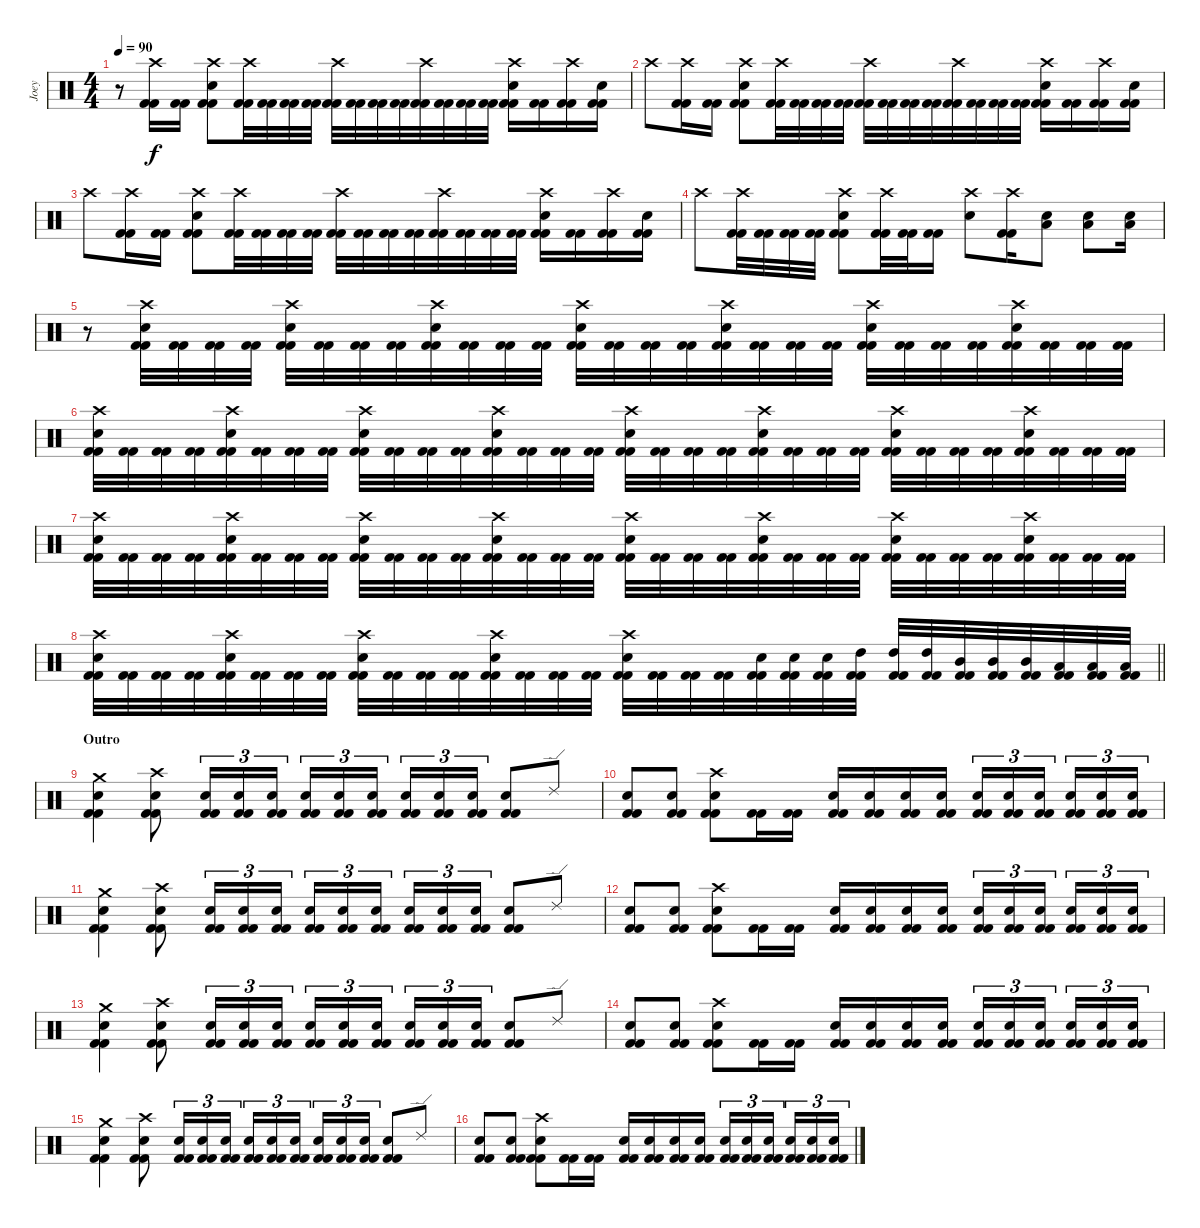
\track ("Joey" "Joey") {instrument percussion}
\staff {score}
\articulation defaults
\ts (4 4)
\tempo 90
\clef neutral
\ks c
r.8{dy f} ("Crash high (hit)" "Kick (hit) 2" "Kick (hit) 2").16 ("Kick (hit) 2" "Kick (hit) 2").16 ("Electric Snare (hit)" "Crash high (hit)" "Kick (hit) 2" "Kick (hit) 2").8 ("Crash high (hit)" "Kick (hit) 2" "Kick (hit) 2").32 ("Kick (hit) 2" "Kick (hit) 2").32 ("Kick (hit) 2" "Kick (hit) 2").32 ("Kick (hit) 2" "Kick (hit) 2").32 ("Crash high (hit)" "Kick (hit) 2" "Kick (hit) 2").32 ("Kick (hit) 2" "Kick (hit) 2").32 ("Kick (hit) 2" "Kick (hit) 2").32 ("Kick (hit) 2" "Kick (hit) 2").32 ("Crash high (hit)" "Kick (hit) 2" "Kick (hit) 2").32 ("Kick (hit) 2" "Kick (hit) 2").32 ("Kick (hit) 2" "Kick (hit) 2").32 ("Kick (hit) 2" "Kick (hit) 2").32 ("Electric Snare (hit)" "Crash high (hit)" "Kick (hit) 2" "Kick (hit) 2").16 ("Kick (hit) 2" "Kick (hit) 2").16 ("Crash high (hit)" "Kick (hit) 2" "Kick (hit) 2").16 ("Electric Snare (hit)" "Kick (hit) 2" "Kick (hit) 2").16 |
"Crash high (hit)".8 ("Crash high (hit)" "Kick (hit) 2" "Kick (hit) 2").16 ("Kick (hit) 2" "Kick (hit) 2").16 ("Electric Snare (hit)" "Crash high (hit)" "Kick (hit) 2" "Kick (hit) 2").8 ("Crash high (hit)" "Kick (hit) 2" "Kick (hit) 2").32 ("Kick (hit) 2" "Kick (hit) 2").32 ("Kick (hit) 2" "Kick (hit) 2").32 ("Kick (hit) 2" "Kick (hit) 2").32 ("Crash high (hit)" "Kick (hit) 2" "Kick (hit) 2").32 ("Kick (hit) 2" "Kick (hit) 2").32 ("Kick (hit) 2" "Kick (hit) 2").32 ("Kick (hit) 2" "Kick (hit) 2").32 ("Crash high (hit)" "Kick (hit) 2" "Kick (hit) 2").32 ("Kick (hit) 2" "Kick (hit) 2").32 ("Kick (hit) 2" "Kick (hit) 2").32 ("Kick (hit) 2" "Kick (hit) 2").32 ("Electric Snare (hit)" "Crash high (hit)" "Kick (hit) 2" "Kick (hit) 2").16 ("Kick (hit) 2" "Kick (hit) 2").16 ("Crash high (hit)" "Kick (hit) 2" "Kick (hit) 2").16 ("Electric Snare (hit)" "Kick (hit) 2" "Kick (hit) 2").16 |
"Crash high (hit)".8 ("Crash high (hit)" "Kick (hit) 2" "Kick (hit) 2").16 ("Kick (hit) 2" "Kick (hit) 2").16 ("Electric Snare (hit)" "Crash high (hit)" "Kick (hit) 2" "Kick (hit) 2").8 ("Crash high (hit)" "Kick (hit) 2" "Kick (hit) 2").32 ("Kick (hit) 2" "Kick (hit) 2").32 ("Kick (hit) 2" "Kick (hit) 2").32 ("Kick (hit) 2" "Kick (hit) 2").32 ("Crash high (hit)" "Kick (hit) 2" "Kick (hit) 2").32 ("Kick (hit) 2" "Kick (hit) 2").32 ("Kick (hit) 2" "Kick (hit) 2").32 ("Kick (hit) 2" "Kick (hit) 2").32 ("Crash high (hit)" "Kick (hit) 2" "Kick (hit) 2").32 ("Kick (hit) 2" "Kick (hit) 2").32 ("Kick (hit) 2" "Kick (hit) 2").32 ("Kick (hit) 2" "Kick (hit) 2").32 ("Electric Snare (hit)" "Crash high (hit)" "Kick (hit) 2" "Kick (hit) 2").16 ("Kick (hit) 2" "Kick (hit) 2").16 ("Crash high (hit)" "Kick (hit) 2" "Kick (hit) 2").16 ("Electric Snare (hit)" "Kick (hit) 2" "Kick (hit) 2").16 |
"Crash high (hit)".8 ("Crash high (hit)" "Kick (hit) 2" "Kick (hit) 2").32 ("Kick (hit) 2" "Kick (hit) 2").32 ("Kick (hit) 2" "Kick (hit) 2").32 ("Kick (hit) 2" "Kick (hit) 2").32 ("Electric Snare (hit)" "Crash high (hit)" "Kick (hit) 2" "Kick (hit) 2").8 ("Crash high (hit)" "Kick (hit) 2" "Kick (hit) 2").32 ("Kick (hit) 2" "Kick (hit) 2").32 ("Kick (hit) 2" "Kick (hit) 2").16 ("Electric Snare (hit)" "Crash high (hit)").8 ("Crash high (hit)" "Kick (hit) 2" "Kick (hit) 2").16 ("Electric Snare (hit)" "Low Tom (hit)").8 ("Electric Snare (hit)" "Low Tom (hit)").8 ("Electric Snare (hit)" "Low Tom (hit)").16 |
r.8 ("Electric Snare (hit)" "Crash high (hit)" "Kick (hit) 2" "Kick (hit) 2").32 ("Kick (hit) 2" "Kick (hit) 2").32 ("Kick (hit) 2" "Kick (hit) 2").32 ("Kick (hit) 2" "Kick (hit) 2").32 ("Electric Snare (hit)" "Crash high (hit)" "Kick (hit) 2" "Kick (hit) 2").32 ("Kick (hit) 2" "Kick (hit) 2").32 ("Kick (hit) 2" "Kick (hit) 2").32 ("Kick (hit) 2" "Kick (hit) 2").32 ("Electric Snare (hit)" "Crash high (hit)" "Kick (hit) 2" "Kick (hit) 2").32 ("Kick (hit) 2" "Kick (hit) 2").32 ("Kick (hit) 2" "Kick (hit) 2").32 ("Kick (hit) 2" "Kick (hit) 2").32 ("Electric Snare (hit)" "Crash high (hit)" "Kick (hit) 2" "Kick (hit) 2").32 ("Kick (hit) 2" "Kick (hit) 2").32 ("Kick (hit) 2" "Kick (hit) 2").32 ("Kick (hit) 2" "Kick (hit) 2").32 ("Electric Snare (hit)" "Crash high (hit)" "Kick (hit) 2" "Kick (hit) 2").32 ("Kick (hit) 2" "Kick (hit) 2").32 ("Kick (hit) 2" "Kick (hit) 2").32 ("Kick (hit) 2" "Kick (hit) 2").32 ("Electric Snare (hit)" "Crash high (hit)" "Kick (hit) 2" "Kick (hit) 2").32 ("Kick (hit) 2" "Kick (hit) 2").32 ("Kick (hit) 2" "Kick (hit) 2").32 ("Kick (hit) 2" "Kick (hit) 2").32 ("Electric Snare (hit)" "Crash high (hit)" "Kick (hit) 2" "Kick (hit) 2").32 ("Kick (hit) 2" "Kick (hit) 2").32 ("Kick (hit) 2" "Kick (hit) 2").32 ("Kick (hit) 2" "Kick (hit) 2").32 |
("Electric Snare (hit)" "Crash high (hit)" "Kick (hit) 2" "Kick (hit) 2").32 ("Kick (hit) 2" "Kick (hit) 2").32 ("Kick (hit) 2" "Kick (hit) 2").32 ("Kick (hit) 2" "Kick (hit) 2").32 ("Electric Snare (hit)" "Crash high (hit)" "Kick (hit) 2" "Kick (hit) 2").32 ("Kick (hit) 2" "Kick (hit) 2").32 ("Kick (hit) 2" "Kick (hit) 2").32 ("Kick (hit) 2" "Kick (hit) 2").32 ("Electric Snare (hit)" "Crash high (hit)" "Kick (hit) 2" "Kick (hit) 2").32 ("Kick (hit) 2" "Kick (hit) 2").32 ("Kick (hit) 2" "Kick (hit) 2").32 ("Kick (hit) 2" "Kick (hit) 2").32 ("Electric Snare (hit)" "Crash high (hit)" "Kick (hit) 2" "Kick (hit) 2").32 ("Kick (hit) 2" "Kick (hit) 2").32 ("Kick (hit) 2" "Kick (hit) 2").32 ("Kick (hit) 2" "Kick (hit) 2").32 ("Electric Snare (hit)" "Crash high (hit)" "Kick (hit) 2" "Kick (hit) 2").32 ("Kick (hit) 2" "Kick (hit) 2").32 ("Kick (hit) 2" "Kick (hit) 2").32 ("Kick (hit) 2" "Kick (hit) 2").32 ("Electric Snare (hit)" "Crash high (hit)" "Kick (hit) 2" "Kick (hit) 2").32 ("Kick (hit) 2" "Kick (hit) 2").32 ("Kick (hit) 2" "Kick (hit) 2").32 ("Kick (hit) 2" "Kick (hit) 2").32 ("Electric Snare (hit)" "Crash high (hit)" "Kick (hit) 2" "Kick (hit) 2").32 ("Kick (hit) 2" "Kick (hit) 2").32 ("Kick (hit) 2" "Kick (hit) 2").32 ("Kick (hit) 2" "Kick (hit) 2").32 ("Electric Snare (hit)" "Crash high (hit)" "Kick (hit) 2" "Kick (hit) 2").32 ("Kick (hit) 2" "Kick (hit) 2").32 ("Kick (hit) 2" "Kick (hit) 2").32 ("Kick (hit) 2" "Kick (hit) 2").32 |
("Electric Snare (hit)" "Crash high (hit)" "Kick (hit) 2" "Kick (hit) 2").32 ("Kick (hit) 2" "Kick (hit) 2").32 ("Kick (hit) 2" "Kick (hit) 2").32 ("Kick (hit) 2" "Kick (hit) 2").32 ("Electric Snare (hit)" "Crash high (hit)" "Kick (hit) 2" "Kick (hit) 2").32 ("Kick (hit) 2" "Kick (hit) 2").32 ("Kick (hit) 2" "Kick (hit) 2").32 ("Kick (hit) 2" "Kick (hit) 2").32 ("Electric Snare (hit)" "Crash high (hit)" "Kick (hit) 2" "Kick (hit) 2").32 ("Kick (hit) 2" "Kick (hit) 2").32 ("Kick (hit) 2" "Kick (hit) 2").32 ("Kick (hit) 2" "Kick (hit) 2").32 ("Electric Snare (hit)" "Crash high (hit)" "Kick (hit) 2" "Kick (hit) 2").32 ("Kick (hit) 2" "Kick (hit) 2").32 ("Kick (hit) 2" "Kick (hit) 2").32 ("Kick (hit) 2" "Kick (hit) 2").32 ("Electric Snare (hit)" "Crash high (hit)" "Kick (hit) 2" "Kick (hit) 2").32 ("Kick (hit) 2" "Kick (hit) 2").32 ("Kick (hit) 2" "Kick (hit) 2").32 ("Kick (hit) 2" "Kick (hit) 2").32 ("Electric Snare (hit)" "Crash high (hit)" "Kick (hit) 2" "Kick (hit) 2").32 ("Kick (hit) 2" "Kick (hit) 2").32 ("Kick (hit) 2" "Kick (hit) 2").32 ("Kick (hit) 2" "Kick (hit) 2").32 ("Electric Snare (hit)" "Crash high (hit)" "Kick (hit) 2" "Kick (hit) 2").32 ("Kick (hit) 2" "Kick (hit) 2").32 ("Kick (hit) 2" "Kick (hit) 2").32 ("Kick (hit) 2" "Kick (hit) 2").32 ("Electric Snare (hit)" "Crash high (hit)" "Kick (hit) 2" "Kick (hit) 2").32 ("Kick (hit) 2" "Kick (hit) 2").32 ("Kick (hit) 2" "Kick (hit) 2").32 ("Kick (hit) 2" "Kick (hit) 2").32 |
\barLineRight lightlight
("Electric Snare (hit)" "Crash high (hit)" "Kick (hit) 2" "Kick (hit) 2").32 ("Kick (hit) 2" "Kick (hit) 2").32 ("Kick (hit) 2" "Kick (hit) 2").32 ("Kick (hit) 2" "Kick (hit) 2").32 ("Electric Snare (hit)" "Crash high (hit)" "Kick (hit) 2" "Kick (hit) 2").32 ("Kick (hit) 2" "Kick (hit) 2").32 ("Kick (hit) 2" "Kick (hit) 2").32 ("Kick (hit) 2" "Kick (hit) 2").32 ("Electric Snare (hit)" "Crash high (hit)" "Kick (hit) 2" "Kick (hit) 2").32 ("Kick (hit) 2" "Kick (hit) 2").32 ("Kick (hit) 2" "Kick (hit) 2").32 ("Kick (hit) 2" "Kick (hit) 2").32 ("Electric Snare (hit)" "Crash high (hit)" "Kick (hit) 2" "Kick (hit) 2").32 ("Kick (hit) 2" "Kick (hit) 2").32 ("Kick (hit) 2" "Kick (hit) 2").32 ("Kick (hit) 2" "Kick (hit) 2").32 ("Electric Snare (hit)" "Crash high (hit)" "Kick (hit) 2" "Kick (hit) 2").32 ("Kick (hit) 2" "Kick (hit) 2").32 ("Kick (hit) 2" "Kick (hit) 2").32 ("Kick (hit) 2" "Kick (hit) 2").32 ("Electric Snare (hit)" "Kick (hit) 2" "Kick (hit) 2").32 ("Electric Snare (hit)" "Kick (hit) 2" "Kick (hit) 2").32 ("Electric Snare (hit)" "Kick (hit) 2" "Kick (hit) 2").32 ("High Tom (hit)" "Kick (hit) 2" "Kick (hit) 2").32 ("High Tom (hit)" "Kick (hit) 2" "Kick (hit) 2").32 ("High Tom (hit)" "Kick (hit) 2" "Kick (hit) 2").32 ("Mid Tom (hit)" "Kick (hit) 2" "Kick (hit) 2").32 ("Mid Tom (hit)" "Kick (hit) 2" "Kick (hit) 2").32 ("Mid Tom (hit)" "Kick (hit) 2" "Kick (hit) 2").32 ("Low Tom (hit)" "Kick (hit) 2" "Kick (hit) 2").32 ("Low Tom (hit)" "Kick (hit) 2" "Kick (hit) 2").32 ("Low Tom (hit)" "Kick (hit) 2" "Kick (hit) 2").32 |
\section ("" "Outro")
("Electric Snare (hit)" "Crash medium (hit)" "Kick (hit) 2" "Kick (hit) 2").4 ("Electric Snare (hit)" "Crash high (hit)" "Kick (hit) 2" "Kick (hit) 2").8 ("Electric Snare (hit)" "Kick (hit) 2" "Kick (hit) 2").16{tu (3 2)} ("Electric Snare (hit)" "Kick (hit) 2" "Kick (hit) 2").16{tu (3 2)} ("Electric Snare (hit)" "Kick (hit) 2" "Kick (hit) 2").16{tu (3 2)} ("Electric Snare (hit)" "Kick (hit) 2" "Kick (hit) 2").16{tu (3 2)} ("Electric Snare (hit)" "Kick (hit) 2" "Kick (hit) 2").16{tu (3 2)} ("Electric Snare (hit)" "Kick (hit) 2" "Kick (hit) 2").16{tu (3 2) beam splitsecondary} ("Electric Snare (hit)" "Kick (hit) 2" "Kick (hit) 2").16{tu (3 2)} ("Electric Snare (hit)" "Kick (hit) 2" "Kick (hit) 2").16{tu (3 2)} ("Electric Snare (hit)" "Kick (hit) 2" "Kick (hit) 2").16{tu (3 2)} ("Electric Snare (hit)" "Kick (hit) 2" "Kick (hit) 2").8 "Ride (edge) 2".8 |
("Electric Snare (hit)" "Kick (hit) 2" "Kick (hit) 2").8 ("Electric Snare (hit)" "Kick (hit) 2" "Kick (hit) 2").8 ("Electric Snare (hit)" "Crash high (hit)" "Kick (hit) 2" "Kick (hit) 2").8 ("Kick (hit) 2" "Kick (hit) 2").16 ("Kick (hit) 2" "Kick (hit) 2").16 ("Electric Snare (hit)" "Kick (hit) 2" "Kick (hit) 2").16 ("Electric Snare (hit)" "Kick (hit) 2" "Kick (hit) 2").16 ("Electric Snare (hit)" "Kick (hit) 2" "Kick (hit) 2").16 ("Electric Snare (hit)" "Kick (hit) 2" "Kick (hit) 2").16 ("Electric Snare (hit)" "Kick (hit) 2" "Kick (hit) 2").16{tu (3 2)} ("Electric Snare (hit)" "Kick (hit) 2" "Kick (hit) 2").16{tu (3 2)} ("Electric Snare (hit)" "Kick (hit) 2" "Kick (hit) 2").16{tu (3 2) beam splitsecondary} ("Electric Snare (hit)" "Kick (hit) 2" "Kick (hit) 2").16{tu (3 2)} ("Electric Snare (hit)" "Kick (hit) 2" "Kick (hit) 2").16{tu (3 2)} ("Electric Snare (hit)" "Kick (hit) 2" "Kick (hit) 2").16{tu (3 2)} |
("Electric Snare (hit)" "Crash medium (hit)" "Kick (hit) 2" "Kick (hit) 2").4 ("Electric Snare (hit)" "Crash high (hit)" "Kick (hit) 2" "Kick (hit) 2").8 ("Electric Snare (hit)" "Kick (hit) 2" "Kick (hit) 2").16{tu (3 2)} ("Electric Snare (hit)" "Kick (hit) 2" "Kick (hit) 2").16{tu (3 2)} ("Electric Snare (hit)" "Kick (hit) 2" "Kick (hit) 2").16{tu (3 2)} ("Electric Snare (hit)" "Kick (hit) 2" "Kick (hit) 2").16{tu (3 2)} ("Electric Snare (hit)" "Kick (hit) 2" "Kick (hit) 2").16{tu (3 2)} ("Electric Snare (hit)" "Kick (hit) 2" "Kick (hit) 2").16{tu (3 2) beam splitsecondary} ("Electric Snare (hit)" "Kick (hit) 2" "Kick (hit) 2").16{tu (3 2)} ("Electric Snare (hit)" "Kick (hit) 2" "Kick (hit) 2").16{tu (3 2)} ("Electric Snare (hit)" "Kick (hit) 2" "Kick (hit) 2").16{tu (3 2)} ("Electric Snare (hit)" "Kick (hit) 2" "Kick (hit) 2").8 "Ride (edge) 2".8 |
("Electric Snare (hit)" "Kick (hit) 2" "Kick (hit) 2").8 ("Electric Snare (hit)" "Kick (hit) 2" "Kick (hit) 2").8 ("Electric Snare (hit)" "Crash high (hit)" "Kick (hit) 2" "Kick (hit) 2").8 ("Kick (hit) 2" "Kick (hit) 2").16 ("Kick (hit) 2" "Kick (hit) 2").16 ("Electric Snare (hit)" "Kick (hit) 2" "Kick (hit) 2").16 ("Electric Snare (hit)" "Kick (hit) 2" "Kick (hit) 2").16 ("Electric Snare (hit)" "Kick (hit) 2" "Kick (hit) 2").16 ("Electric Snare (hit)" "Kick (hit) 2" "Kick (hit) 2").16 ("Electric Snare (hit)" "Kick (hit) 2" "Kick (hit) 2").16{tu (3 2)} ("Electric Snare (hit)" "Kick (hit) 2" "Kick (hit) 2").16{tu (3 2)} ("Electric Snare (hit)" "Kick (hit) 2" "Kick (hit) 2").16{tu (3 2) beam splitsecondary} ("Electric Snare (hit)" "Kick (hit) 2" "Kick (hit) 2").16{tu (3 2)} ("Electric Snare (hit)" "Kick (hit) 2" "Kick (hit) 2").16{tu (3 2)} ("Electric Snare (hit)" "Kick (hit) 2" "Kick (hit) 2").16{tu (3 2)} |
("Electric Snare (hit)" "Crash medium (hit)" "Kick (hit) 2" "Kick (hit) 2").4 ("Electric Snare (hit)" "Crash high (hit)" "Kick (hit) 2" "Kick (hit) 2").8 ("Electric Snare (hit)" "Kick (hit) 2" "Kick (hit) 2").16{tu (3 2)} ("Electric Snare (hit)" "Kick (hit) 2" "Kick (hit) 2").16{tu (3 2)} ("Electric Snare (hit)" "Kick (hit) 2" "Kick (hit) 2").16{tu (3 2)} ("Electric Snare (hit)" "Kick (hit) 2" "Kick (hit) 2").16{tu (3 2)} ("Electric Snare (hit)" "Kick (hit) 2" "Kick (hit) 2").16{tu (3 2)} ("Electric Snare (hit)" "Kick (hit) 2" "Kick (hit) 2").16{tu (3 2) beam splitsecondary} ("Electric Snare (hit)" "Kick (hit) 2" "Kick (hit) 2").16{tu (3 2)} ("Electric Snare (hit)" "Kick (hit) 2" "Kick (hit) 2").16{tu (3 2)} ("Electric Snare (hit)" "Kick (hit) 2" "Kick (hit) 2").16{tu (3 2)} ("Electric Snare (hit)" "Kick (hit) 2" "Kick (hit) 2").8 "Ride (edge) 2".8 |
("Electric Snare (hit)" "Kick (hit) 2" "Kick (hit) 2").8 ("Electric Snare (hit)" "Kick (hit) 2" "Kick (hit) 2").8 ("Electric Snare (hit)" "Crash high (hit)" "Kick (hit) 2" "Kick (hit) 2").8 ("Kick (hit) 2" "Kick (hit) 2").16 ("Kick (hit) 2" "Kick (hit) 2").16 ("Electric Snare (hit)" "Kick (hit) 2" "Kick (hit) 2").16 ("Electric Snare (hit)" "Kick (hit) 2" "Kick (hit) 2").16 ("Electric Snare (hit)" "Kick (hit) 2" "Kick (hit) 2").16 ("Electric Snare (hit)" "Kick (hit) 2" "Kick (hit) 2").16 ("Electric Snare (hit)" "Kick (hit) 2" "Kick (hit) 2").16{tu (3 2)} ("Electric Snare (hit)" "Kick (hit) 2" "Kick (hit) 2").16{tu (3 2)} ("Electric Snare (hit)" "Kick (hit) 2" "Kick (hit) 2").16{tu (3 2) beam splitsecondary} ("Electric Snare (hit)" "Kick (hit) 2" "Kick (hit) 2").16{tu (3 2)} ("Electric Snare (hit)" "Kick (hit) 2" "Kick (hit) 2").16{tu (3 2)} ("Electric Snare (hit)" "Kick (hit) 2" "Kick (hit) 2").16{tu (3 2)} |
("Electric Snare (hit)" "Crash medium (hit)" "Kick (hit) 2" "Kick (hit) 2").4 ("Electric Snare (hit)" "Crash high (hit)" "Kick (hit) 2" "Kick (hit) 2").8 ("Electric Snare (hit)" "Kick (hit) 2" "Kick (hit) 2").16{tu (3 2)} ("Electric Snare (hit)" "Kick (hit) 2" "Kick (hit) 2").16{tu (3 2)} ("Electric Snare (hit)" "Kick (hit) 2" "Kick (hit) 2").16{tu (3 2)} ("Electric Snare (hit)" "Kick (hit) 2" "Kick (hit) 2").16{tu (3 2)} ("Electric Snare (hit)" "Kick (hit) 2" "Kick (hit) 2").16{tu (3 2)} ("Electric Snare (hit)" "Kick (hit) 2" "Kick (hit) 2").16{tu (3 2) beam splitsecondary} ("Electric Snare (hit)" "Kick (hit) 2" "Kick (hit) 2").16{tu (3 2)} ("Electric Snare (hit)" "Kick (hit) 2" "Kick (hit) 2").16{tu (3 2)} ("Electric Snare (hit)" "Kick (hit) 2" "Kick (hit) 2").16{tu (3 2)} ("Electric Snare (hit)" "Kick (hit) 2" "Kick (hit) 2").8 "Ride (edge) 2".8 |
("Electric Snare (hit)" "Kick (hit) 2" "Kick (hit) 2").8 ("Electric Snare (hit)" "Kick (hit) 2" "Kick (hit) 2").8 ("Electric Snare (hit)" "Crash high (hit)" "Kick (hit) 2" "Kick (hit) 2").8 ("Kick (hit) 2" "Kick (hit) 2").16 ("Kick (hit) 2" "Kick (hit) 2").16 ("Electric Snare (hit)" "Kick (hit) 2" "Kick (hit) 2").16 ("Electric Snare (hit)" "Kick (hit) 2" "Kick (hit) 2").16 ("Electric Snare (hit)" "Kick (hit) 2" "Kick (hit) 2").16 ("Electric Snare (hit)" "Kick (hit) 2" "Kick (hit) 2").16 ("Electric Snare (hit)" "Kick (hit) 2" "Kick (hit) 2").16{tu (3 2)} ("Electric Snare (hit)" "Kick (hit) 2" "Kick (hit) 2").16{tu (3 2)} ("Electric Snare (hit)" "Kick (hit) 2" "Kick (hit) 2").16{tu (3 2) beam splitsecondary} ("Electric Snare (hit)" "Kick (hit) 2" "Kick (hit) 2").16{tu (3 2)} ("Electric Snare (hit)" "Kick (hit) 2" "Kick (hit) 2").16{tu (3 2)} ("Electric Snare (hit)" "Kick (hit) 2" "Kick (hit) 2").16{tu (3 2)}
